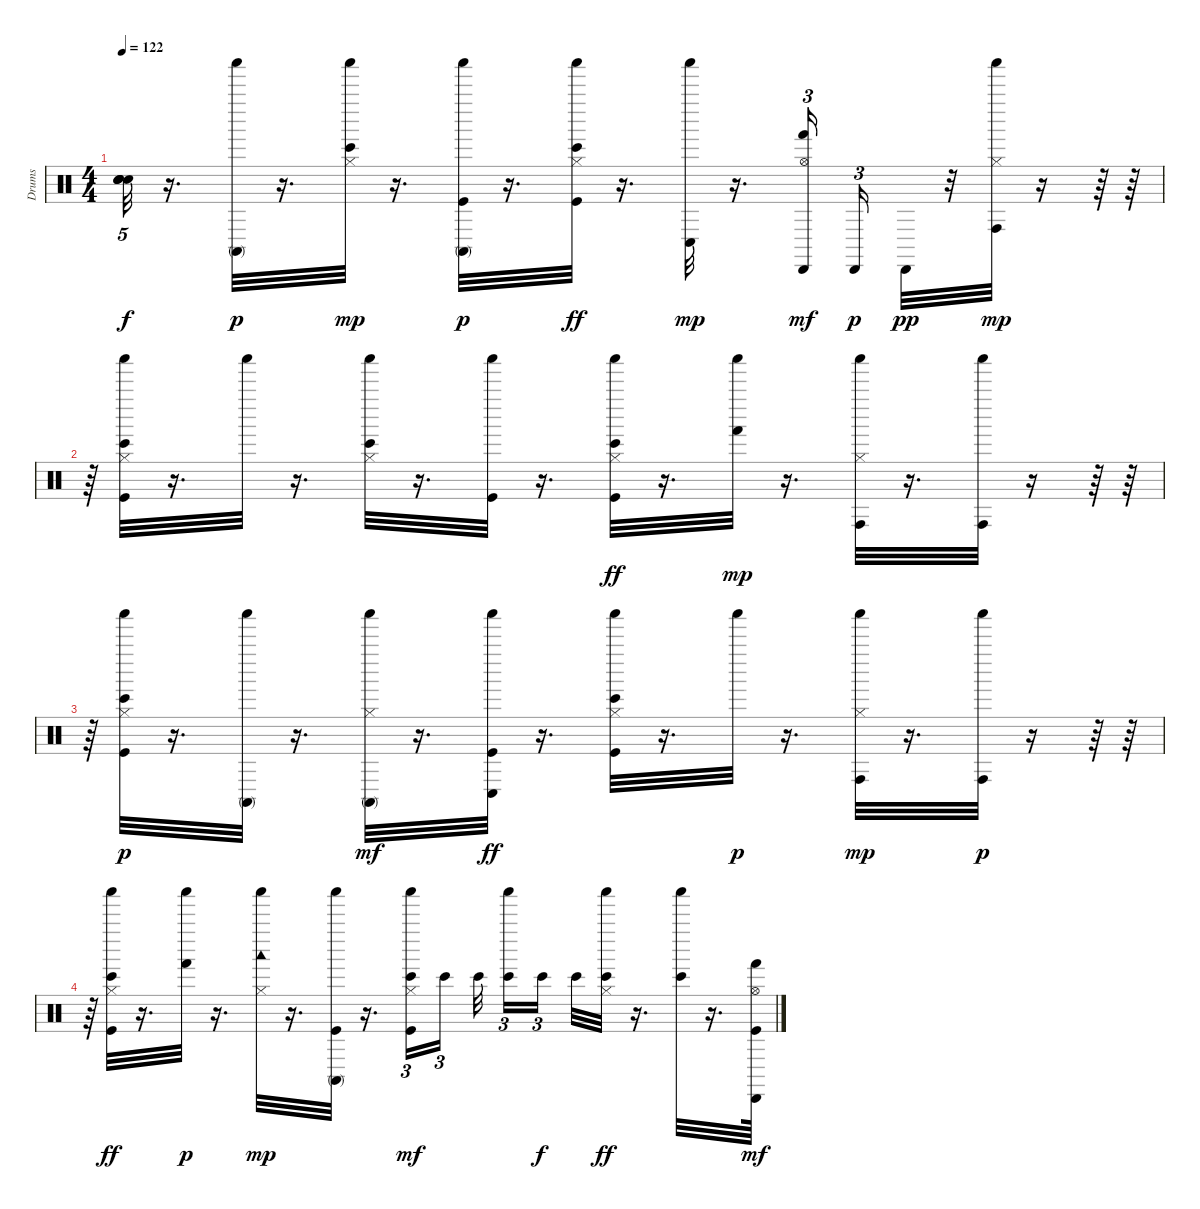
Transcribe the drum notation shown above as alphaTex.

\track ("Drums" "Drums") {instrument percussion}
\staff {score}
\articulation defaults
\ts (4 4)
\tempo 122
\clef neutral
\ks c
("Snare (hit)"{t} "Snare (hit)"{t} "Snare (hit)"{t} "Snare (hit)"{t}).32{tu (5 4) dy f} r.16{d} ("Conga high (mute)" "Shaker (hit)").32{dy p} r.16{d} ("Shaker (hit)" "Hi-Hat (closed)" "Bongo High (hit)").32{dy mp} r.16{d} ("Shaker (hit)" "Kick (hit)" "Conga high (mute)").32{dy p} r.16{d} ("Shaker (hit)" "Kick (hit)" "Hi-Hat (closed)" "Bongo High (hit)").32{dy ff} r.16{d} ("Shaker (hit)" "Conga low (hit)").32{dy mp} r.16{d} ("Hi-Hat (open)" "Hand (hit)" "Cabasa (hit)").16{tu (3 2) dy mf} "Cabasa (hit)".16{tu (3 2) dy p} "Cabasa (hit)".32{dy pp} r.32 ("Shaker (hit)" "Hi-Hat (closed)" "Conga high (hit)").32{dy mp} r.16 r.64 r.64 |
r.64 ("Shaker (hit)" "Kick (hit)" "Hi-Hat (closed)" "Bongo High (hit)").32 r.16{d} "Shaker (hit)".32 r.16{d} ("Shaker (hit)" "Hi-Hat (closed)" "Bongo High (hit)").32 r.16{d} ("Shaker (hit)" "Kick (hit)").32 r.16{d} ("Shaker (hit)" "Kick (hit)" "Hi-Hat (closed)" "Bongo High (hit)").32{dy ff} r.16{d} ("Shaker (hit)" "Hand (hit)").32{dy mp} r.16{d} ("Shaker (hit)" "Hi-Hat (closed)" "Conga high (hit)").32 r.16{d} ("Shaker (hit)" "Conga high (hit)").32 r.16 r.64 r.64 |
r.64 ("Kick (hit)" "Hi-Hat (closed)" "Bongo High (hit)" "Shaker (hit)").32{dy p} r.16{d} ("Conga high (mute)" "Shaker (hit)").32 r.16{d} ("Shaker (hit)" "Hi-Hat (closed)" "Conga high (mute)").32{dy mf} r.16{d} ("Shaker (hit)" "Kick (hit)" "Conga low (hit)").32{dy ff} r.16{d} ("Shaker (hit)" "Kick (hit)" "Hi-Hat (closed)" "Bongo High (hit)").32 r.16{d} "Shaker (hit)".32{dy p} r.16{d} ("Hi-Hat (closed)" "Shaker (hit)" "Conga high (hit)").32{dy mp} r.16{d} ("Shaker (hit)" "Conga high (hit)").32{dy p} r.16 r.64 r.64 |
r.64 ("Shaker (hit)" "Kick (hit)" "Hi-Hat (closed)" "Bongo High (hit)").32{dy ff} r.16{d} ("Shaker (hit)" "Hand (hit)").32{dy p} r.16{d} ("Hi-Hat (closed)" "Woodblock low (hit)" "Shaker (hit)").32{dy mp} r.16{d} ("Shaker (hit)" "Kick (hit)" "Conga high (mute)").32 r.16{d} ("Shaker (hit)" "Kick (hit)" "Hi-Hat (closed)" "Bongo High (hit)").16{tu (3 2) dy mf} "Bongo High (hit)".16{tu (3 2) beam splitsecondary} "Bongo High (hit)".32{beam splitsecondary} ("Shaker (hit)" "Bongo High (hit)").16{tu (3 2)} "Bongo High (hit)".16{tu (3 2) dy f beam splitsecondary} "Bongo High (hit)".32 ("Hi-Hat (closed)" "Shaker (hit)" "Bongo High (hit)").32{dy ff} r.16{d} ("Shaker (hit)" "Bongo High (hit)").32 r.16{d} ("Kick (hit)" "Hi-Hat (open)" "Hand (hit)" "Cabasa (hit)").64{dy mf}
